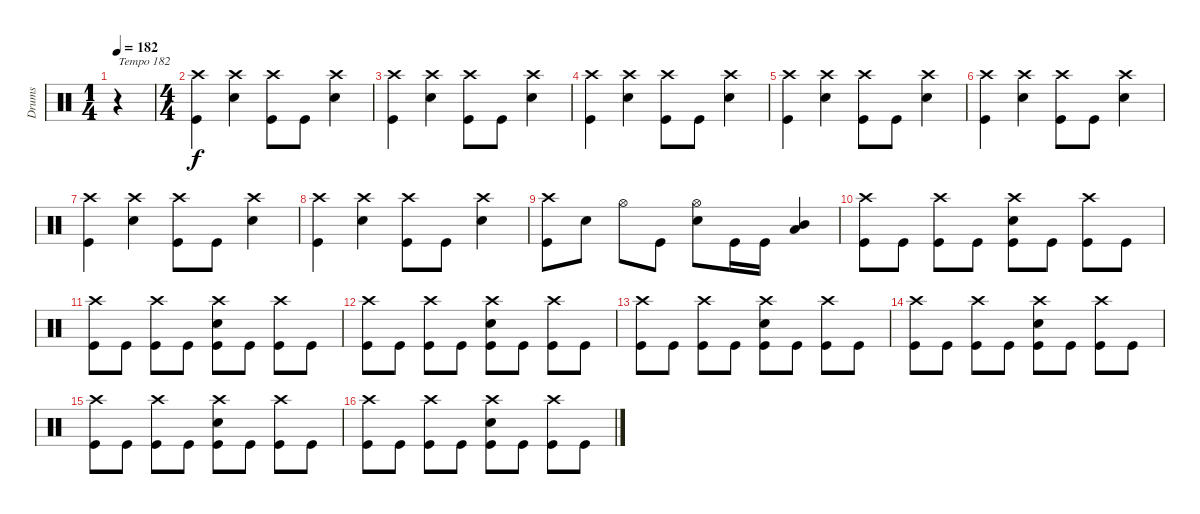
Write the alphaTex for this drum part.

\track ("Drums" "Drums") {instrument percussion}
\staff {score}
\articulation defaults
\ts (1 4)
\tempo 182
\clef neutral
\ks c
r.4{txt "Tempo 182" dy f} |
\ts (4 4)
("Crash high (hit)" "Kick (hit)").4 ("Crash high (hit)" "Electric Snare (hit)").4 ("Crash high (hit)" "Kick (hit)").8 "Kick (hit)".8 ("Crash high (hit)" "Electric Snare (hit)").4 |
("Crash high (hit)" "Kick (hit)").4 ("Crash high (hit)" "Electric Snare (hit)").4 ("Crash high (hit)" "Kick (hit)").8 "Kick (hit)".8 ("Crash high (hit)" "Electric Snare (hit)").4 |
("Crash high (hit)" "Kick (hit)").4 ("Crash high (hit)" "Electric Snare (hit)").4 ("Crash high (hit)" "Kick (hit)").8 "Kick (hit)".8 ("Crash high (hit)" "Electric Snare (hit)").4 |
("Crash high (hit)" "Kick (hit)").4 ("Crash high (hit)" "Electric Snare (hit)").4 ("Crash high (hit)" "Kick (hit)").8 "Kick (hit)".8 ("Crash high (hit)" "Electric Snare (hit)").4 |
("Crash high (hit)" "Kick (hit)").4 ("Crash high (hit)" "Electric Snare (hit)").4 ("Crash high (hit)" "Kick (hit)").8 "Kick (hit)".8 ("Crash high (hit)" "Electric Snare (hit)").4 |
("Crash high (hit)" "Kick (hit)").4 ("Crash high (hit)" "Electric Snare (hit)").4 ("Crash high (hit)" "Kick (hit)").8 "Kick (hit)".8 ("Crash high (hit)" "Electric Snare (hit)").4 |
("Crash high (hit)" "Kick (hit)").4 ("Crash high (hit)" "Electric Snare (hit)").4 ("Crash high (hit)" "Kick (hit)").8 "Kick (hit)".8 ("Crash high (hit)" "Electric Snare (hit)").4 |
("Crash high (hit)" "Kick (hit)").8 "Electric Snare (hit)".8 "Hi-Hat (open)".8 "Kick (hit)".8 ("Hi-Hat (open)" "Electric Snare (hit)").8 "Kick (hit)".16 "Kick (hit)".16 ("Mid Tom (hit)" "Low Tom (hit)").4 |
("Crash high (hit)" "Kick (hit)").8 "Kick (hit)".8 ("Crash high (hit)" "Kick (hit)").8 "Kick (hit)".8 ("Electric Snare (hit)" "Crash high (hit)" "Kick (hit)").8 "Kick (hit)".8 ("Crash high (hit)" "Kick (hit)").8 "Kick (hit)".8 |
("Crash high (hit)" "Kick (hit)").8 "Kick (hit)".8 ("Crash high (hit)" "Kick (hit)").8 "Kick (hit)".8 ("Electric Snare (hit)" "Crash high (hit)" "Kick (hit)").8 "Kick (hit)".8 ("Crash high (hit)" "Kick (hit)").8 "Kick (hit)".8 |
("Crash high (hit)" "Kick (hit)").8 "Kick (hit)".8 ("Crash high (hit)" "Kick (hit)").8 "Kick (hit)".8 ("Electric Snare (hit)" "Crash high (hit)" "Kick (hit)").8 "Kick (hit)".8 ("Crash high (hit)" "Kick (hit)").8 "Kick (hit)".8 |
("Crash high (hit)" "Kick (hit)").8 "Kick (hit)".8 ("Crash high (hit)" "Kick (hit)").8 "Kick (hit)".8 ("Electric Snare (hit)" "Crash high (hit)" "Kick (hit)").8 "Kick (hit)".8 ("Crash high (hit)" "Kick (hit)").8 "Kick (hit)".8 |
("Crash high (hit)" "Kick (hit)").8 "Kick (hit)".8 ("Crash high (hit)" "Kick (hit)").8 "Kick (hit)".8 ("Electric Snare (hit)" "Crash high (hit)" "Kick (hit)").8 "Kick (hit)".8 ("Crash high (hit)" "Kick (hit)").8 "Kick (hit)".8 |
("Crash high (hit)" "Kick (hit)").8 "Kick (hit)".8 ("Crash high (hit)" "Kick (hit)").8 "Kick (hit)".8 ("Electric Snare (hit)" "Crash high (hit)" "Kick (hit)").8 "Kick (hit)".8 ("Crash high (hit)" "Kick (hit)").8 "Kick (hit)".8 |
("Crash high (hit)" "Kick (hit)").8 "Kick (hit)".8 ("Crash high (hit)" "Kick (hit)").8 "Kick (hit)".8 ("Electric Snare (hit)" "Crash high (hit)" "Kick (hit)").8 "Kick (hit)".8 ("Crash high (hit)" "Kick (hit)").8 "Kick (hit)".8
